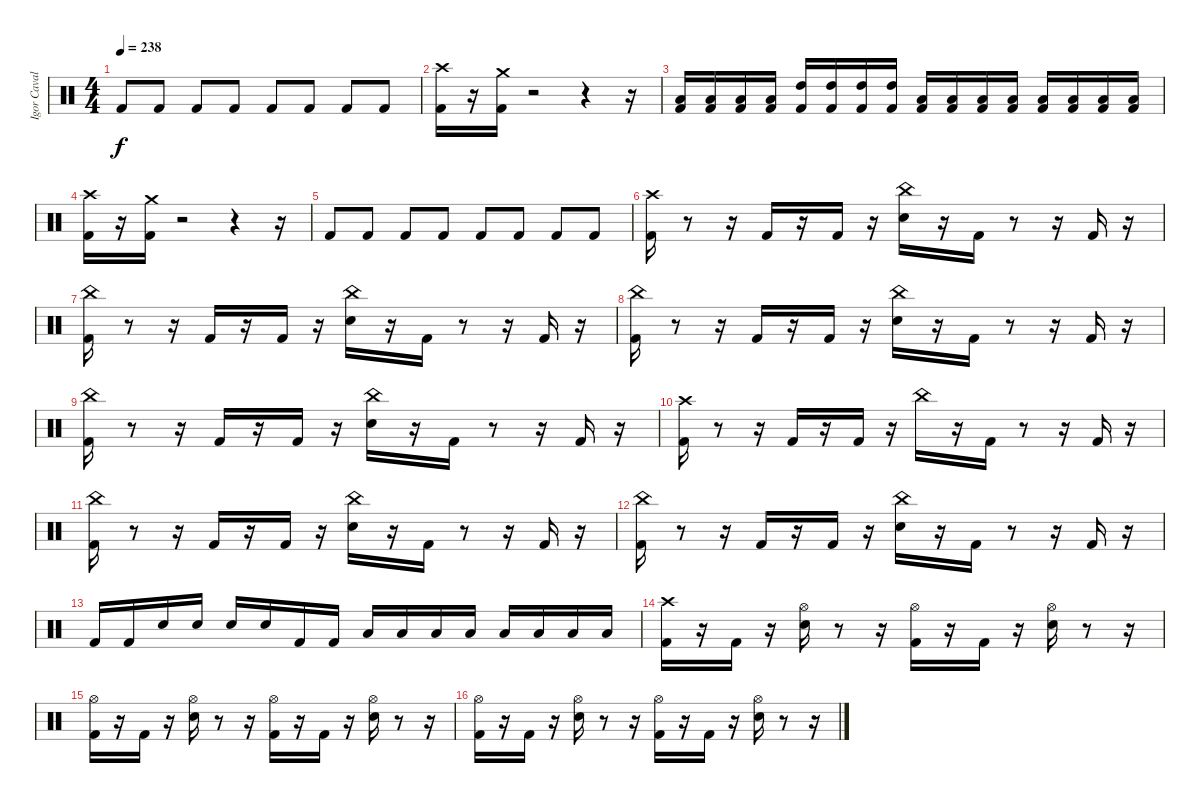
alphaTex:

\track ("Igor Cavalera" "Igor Caval") {instrument percussion}
\staff {score}
\articulation defaults
\ts (4 4)
\tempo 238
\clef neutral
\ks c "Kick (hit) 2".8{dy f} "Kick (hit) 2".8 "Kick (hit) 2".8 "Kick (hit) 2".8 "Kick (hit) 2".8 "Kick (hit) 2".8 "Kick (hit) 2".8 "Kick (hit) 2".8
|
("Kick (hit) 2" "Crash high (hit)").16 r.16 ("Kick (hit) 2" "Crash medium (hit)").16 r.2 r.4 r.16 |
("Kick (hit) 2" "Low Tom (hit)").16 ("Kick (hit) 2" "Low Tom (hit)").16 ("Kick (hit) 2" "Low Tom (hit)").16 ("Kick (hit) 2" "Low Tom (hit)").16 ("Kick (hit) 2" "High Tom (hit)").16 ("Kick (hit) 2" "High Tom (hit)").16 ("Kick (hit) 2" "High Tom (hit)").16 ("Kick (hit) 2" "High Tom (hit)").16 ("Kick (hit) 2" "Low Tom (hit)").16 ("Kick (hit) 2" "Low Tom (hit)").16 ("Kick (hit) 2" "Low Floor Tom (hit)").16 ("Kick (hit) 2" "Low Floor Tom (hit)").16 ("Kick (hit) 2" "Low Tom (hit)").16 ("Kick (hit) 2" "Low Tom (hit)").16 ("Kick (hit) 2" "Low Floor Tom (hit)").16 ("Kick (hit) 2" "Low Floor Tom (hit)").16 |
("Kick (hit) 2" "Crash high (hit)").16 r.16 ("Kick (hit) 2" "Crash medium (hit)").16 r.2 r.4 r.16 |
"Kick (hit) 2".8 "Kick (hit) 2".8 "Kick (hit) 2".8 "Kick (hit) 2".8 "Kick (hit) 2".8 "Kick (hit) 2".8 "Kick (hit) 2".8 "Kick (hit) 2".8 |
("Kick (hit) 2" "Crash high (hit)").16 r.8 r.16 "Kick (hit) 2".16 r.16 "Kick (hit) 2".16 r.16 ("Snare (hit) 2" "China (hit)").16 r.16 "Kick (hit) 2".16 r.8 r.16 "Kick (hit) 2".16 r.16 |
("Kick (hit) 2" "China (hit)").16 r.8 r.16 "Kick (hit) 2".16 r.16 "Kick (hit) 2".16 r.16 ("Snare (hit) 2" "China (hit)").16 r.16 "Kick (hit) 2".16 r.8 r.16 "Kick (hit) 2".16 r.16 |
("Kick (hit) 2" "China (hit)").16 r.8 r.16 "Kick (hit) 2".16 r.16 "Kick (hit) 2".16 r.16 ("Snare (hit) 2" "China (hit)").16 r.16 "Kick (hit) 2".16 r.8 r.16 "Kick (hit) 2".16 r.16 |
("Kick (hit) 2" "China (hit)").16 r.8 r.16 "Kick (hit) 2".16 r.16 "Kick (hit) 2".16 r.16 ("Snare (hit) 2" "China (hit)").16 r.16 "Kick (hit) 2".16 r.8 r.16 "Kick (hit) 2".16 r.16 |
("Kick (hit) 2" "Crash high (hit)").16 r.8 r.16 "Kick (hit) 2".16 r.16 "Kick (hit) 2".16 r.16 "China (hit)".16 r.16 "Kick (hit) 2".16 r.8 r.16 "Kick (hit) 2".16 r.16 |
("Kick (hit) 2" "China (hit)").16 r.8 r.16 "Kick (hit) 2".16 r.16 "Kick (hit) 2".16 r.16 ("Snare (hit) 2" "China (hit)").16 r.16 "Kick (hit) 2".16 r.8 r.16 "Kick (hit) 2".16 r.16 |
("Kick (hit) 2" "China (hit)").16 r.8 r.16 "Kick (hit) 2".16 r.16 "Kick (hit) 2".16 r.16 ("Snare (hit) 2" "China (hit)").16 r.16 "Kick (hit) 2".16 r.8 r.16 "Kick (hit) 2".16 r.16 |
"Kick (hit) 2".16 "Kick (hit) 2".16 "Snare (hit) 2".16 "Snare (hit) 2".16 "Snare (hit) 2".16 "Snare (hit) 2".16 "Kick (hit) 2".16 "Kick (hit) 2".16 "Low Tom (hit)".16 "Low Tom (hit)".16 "Low Floor Tom (hit)".16 "Low Floor Tom (hit)".16 "Low Tom (hit)".16 "Low Tom (hit)".16 "Low Floor Tom (hit)".16 "Low Floor Tom (hit)".16 |
("Crash high (hit)" "Kick (hit) 2").16 r.16 "Kick (hit) 2".16 r.16 ("Hi-Hat (open)" "Snare (hit) 2").16 r.8 r.16 ("Hi-Hat (open)" "Kick (hit) 2").16 r.16 "Kick (hit) 2".16 r.16 ("Hi-Hat (open)" "Snare (hit) 2").16 r.8 r.16 |
("Kick (hit) 2" "Hi-Hat (open)").16 r.16 "Kick (hit) 2".16 r.16 ("Hi-Hat (open)" "Snare (hit) 2").16 r.8 r.16 ("Hi-Hat (open)" "Kick (hit) 2").16 r.16 "Kick (hit) 2".16 r.16 ("Hi-Hat (open)" "Snare (hit) 2").16 r.8 r.16 |
("Kick (hit) 2" "Hi-Hat (open)").16 r.16 "Kick (hit) 2".16 r.16 ("Hi-Hat (open)" "Snare (hit) 2").16 r.8 r.16 ("Hi-Hat (open)" "Kick (hit) 2").16 r.16 "Kick (hit) 2".16 r.16 ("Hi-Hat (open)" "Snare (hit) 2").16 r.8 r.16
